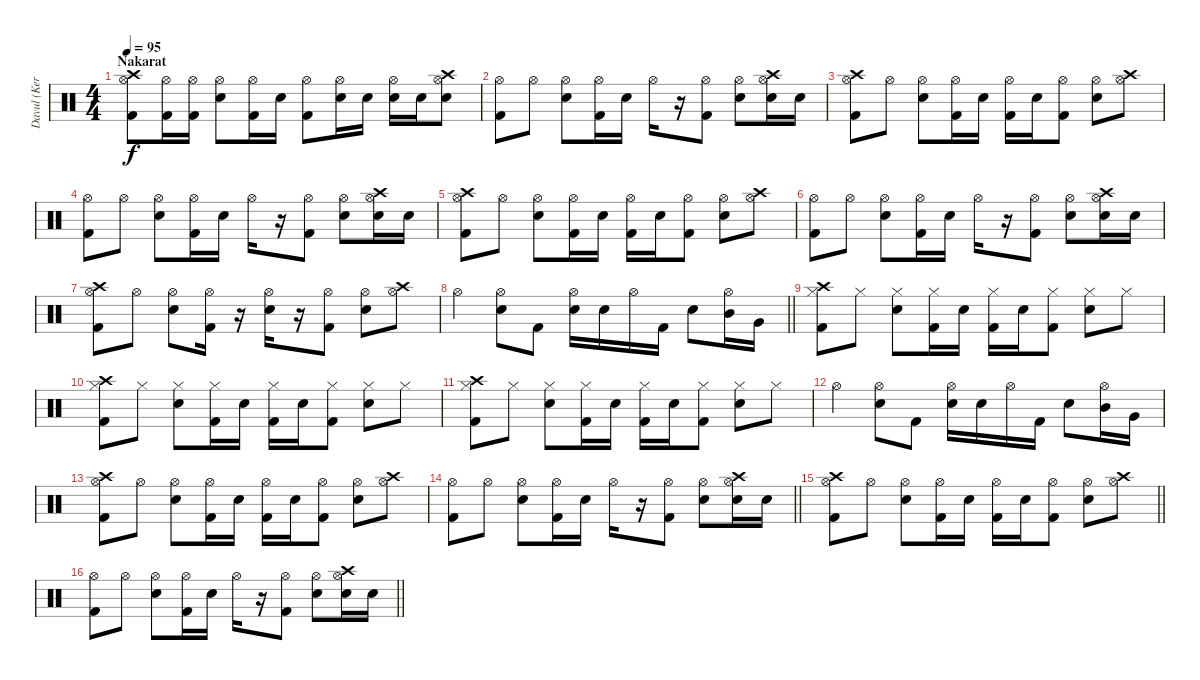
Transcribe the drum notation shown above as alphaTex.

\track ("Davul (Kerem Kabadayı)" "Davul (Ker") {instrument percussion}
\staff {score}
\articulation defaults
\ts (4 4)
\section ("" "Nakarat")
\tempo 95
\clef neutral
\ks c
("Crash high (hit)" "Kick (hit) 2" "Hi-Hat (open)").8{dy f} ("Kick (hit) 2" "Hi-Hat (open)").16 ("Kick (hit) 2" "Hi-Hat (open)").16 ("Snare (hit) 2" "Hi-Hat (open)").8 ("Kick (hit) 2" "Hi-Hat (open)").16 "Snare (hit) 2".16 ("Kick (hit) 2" "Hi-Hat (open)").8 ("Snare (hit) 2" "Hi-Hat (open)").16 "Snare (hit) 2".16 ("Snare (hit) 2" "Hi-Hat (open)").16 "Snare (hit) 2".16 ("Crash high (hit)" "Snare (hit) 2" "Hi-Hat (open)").8 |
("Kick (hit) 2" "Hi-Hat (open)").8 "Hi-Hat (open)".8 ("Snare (hit) 2" "Hi-Hat (open)").8 ("Kick (hit) 2" "Hi-Hat (open)").16 "Snare (hit) 2".16 "Hi-Hat (open)".16 r.16 ("Kick (hit) 2" "Hi-Hat (open)").8 ("Snare (hit) 2" "Hi-Hat (open)").8 ("Crash high (hit)" "Snare (hit) 2" "Hi-Hat (open)").16 "Snare (hit) 2".16 |
("Crash high (hit)" "Kick (hit) 2" "Hi-Hat (open)").8 "Hi-Hat (open)".8 ("Snare (hit) 2" "Hi-Hat (open)").8 ("Kick (hit) 2" "Hi-Hat (open)").16 "Snare (hit) 2".16 ("Kick (hit) 2" "Hi-Hat (open)").16 "Snare (hit) 2".16 ("Kick (hit) 2" "Hi-Hat (open)").8 ("Snare (hit) 2" "Hi-Hat (open)").8 ("Crash high (hit)" "Hi-Hat (open)").8 |
("Kick (hit) 2" "Hi-Hat (open)").8 "Hi-Hat (open)".8 ("Snare (hit) 2" "Hi-Hat (open)").8 ("Kick (hit) 2" "Hi-Hat (open)").16 "Snare (hit) 2".16 "Hi-Hat (open)".16 r.16 ("Kick (hit) 2" "Hi-Hat (open)").8 ("Snare (hit) 2" "Hi-Hat (open)").8 ("Crash high (hit)" "Snare (hit) 2" "Hi-Hat (open)").16 "Snare (hit) 2".16 |
("Crash high (hit)" "Kick (hit) 2" "Hi-Hat (open)").8 "Hi-Hat (open)".8 ("Snare (hit) 2" "Hi-Hat (open)").8 ("Kick (hit) 2" "Hi-Hat (open)").16 "Snare (hit) 2".16 ("Kick (hit) 2" "Hi-Hat (open)").16 "Snare (hit) 2".16 ("Kick (hit) 2" "Hi-Hat (open)").8 ("Snare (hit) 2" "Hi-Hat (open)").8 ("Crash high (hit)" "Hi-Hat (open)").8 |
("Kick (hit) 2" "Hi-Hat (open)").8 "Hi-Hat (open)".8 ("Snare (hit) 2" "Hi-Hat (open)").8 ("Kick (hit) 2" "Hi-Hat (open)").16 "Snare (hit) 2".16 "Hi-Hat (open)".16 r.16 ("Kick (hit) 2" "Hi-Hat (open)").8 ("Snare (hit) 2" "Hi-Hat (open)").8 ("Crash high (hit)" "Snare (hit) 2" "Hi-Hat (open)").16 "Snare (hit) 2".16 |
("Crash high (hit)" "Kick (hit) 2" "Hi-Hat (open)").8 "Hi-Hat (open)".8 ("Snare (hit) 2" "Hi-Hat (open)").8 ("Kick (hit) 2" "Hi-Hat (open)").16 r.16 ("Snare (hit) 2" "Hi-Hat (open)").16 r.16 ("Kick (hit) 2" "Hi-Hat (open)").8 ("Snare (hit) 2" "Hi-Hat (open)").8 ("Crash high (hit)" "Hi-Hat (open)").8 |
\barLineRight lightlight "Hi-Hat (open)".4
("Snare (hit) 2" "Hi-Hat (open)").8 "Kick (hit) 2".8 ("Snare (hit) 2" "Hi-Hat (open)").16 "Snare (hit) 2".16 "Hi-Hat (open)".16 "Kick (hit) 2".16 "Snare (hit) 2".8 ("Mid Tom (hit)" "Hi-Hat (open)").16 "Very Low Tom (hit)".16 |
("Crash high (hit)" "Kick (hit) 2" "Hi-Hat (closed)").8{volume 11} "Hi-Hat (closed)".8 ("Snare (hit) 2" "Hi-Hat (closed)").8 ("Kick (hit) 2" "Hi-Hat (closed)").16 "Snare (hit) 2".16 ("Kick (hit) 2" "Hi-Hat (closed)").16 "Snare (hit) 2".16 ("Kick (hit) 2" "Hi-Hat (closed)").8 ("Snare (hit) 2" "Hi-Hat (closed)").8 "Hi-Hat (closed)".8 |
("Crash high (hit)" "Kick (hit) 2" "Hi-Hat (closed)").8 "Hi-Hat (closed)".8 ("Snare (hit) 2" "Hi-Hat (closed)").8 ("Kick (hit) 2" "Hi-Hat (closed)").16 "Snare (hit) 2".16 ("Kick (hit) 2" "Hi-Hat (closed)").16 "Snare (hit) 2".16 ("Kick (hit) 2" "Hi-Hat (closed)").8 ("Snare (hit) 2" "Hi-Hat (closed)").8 "Hi-Hat (closed)".8 |
("Crash high (hit)" "Kick (hit) 2" "Hi-Hat (closed)").8 "Hi-Hat (closed)".8 ("Snare (hit) 2" "Hi-Hat (closed)").8 ("Kick (hit) 2" "Hi-Hat (closed)").16 "Snare (hit) 2".16 ("Kick (hit) 2" "Hi-Hat (closed)").16 "Snare (hit) 2".16 ("Kick (hit) 2" "Hi-Hat (closed)").8 ("Snare (hit) 2" "Hi-Hat (closed)").8 "Hi-Hat (closed)".8 |
"Hi-Hat (open)".4 ("Snare (hit) 2" "Hi-Hat (open)").8 "Kick (hit) 2".8 ("Snare (hit) 2" "Hi-Hat (open)").16 "Snare (hit) 2".16 "Hi-Hat (open)".16 "Kick (hit) 2".16 "Snare (hit) 2".8 ("Mid Tom (hit)" "Hi-Hat (open)").16 "Very Low Tom (hit)".16 |
("Crash high (hit)" "Kick (hit) 2" "Hi-Hat (open)").8 "Hi-Hat (open)".8 ("Snare (hit) 2" "Hi-Hat (open)").8 ("Kick (hit) 2" "Hi-Hat (open)").16 "Snare (hit) 2".16 ("Kick (hit) 2" "Hi-Hat (open)").16 "Snare (hit) 2".16 ("Kick (hit) 2" "Hi-Hat (open)").8 ("Snare (hit) 2" "Hi-Hat (open)").8 ("Crash high (hit)" "Hi-Hat (open)").8 |
\barLineRight lightlight
("Kick (hit) 2" "Hi-Hat (open)").8 "Hi-Hat (open)".8 ("Snare (hit) 2" "Hi-Hat (open)").8 ("Kick (hit) 2" "Hi-Hat (open)").16 "Snare (hit) 2".16 "Hi-Hat (open)".16 r.16 ("Kick (hit) 2" "Hi-Hat (open)").8 ("Snare (hit) 2" "Hi-Hat (open)").8 ("Crash high (hit)" "Snare (hit) 2" "Hi-Hat (open)").16 "Snare (hit) 2".16 |
\section ("" "")
\barLineRight lightlight
("Crash high (hit)" "Kick (hit) 2" "Hi-Hat (open)").8 "Hi-Hat (open)".8 ("Snare (hit) 2" "Hi-Hat (open)").8 ("Kick (hit) 2" "Hi-Hat (open)").16 "Snare (hit) 2".16 ("Kick (hit) 2" "Hi-Hat (open)").16 "Snare (hit) 2".16 ("Kick (hit) 2" "Hi-Hat (open)").8 ("Snare (hit) 2" "Hi-Hat (open)").8 ("Crash high (hit)" "Hi-Hat (open)").8 |
\barLineRight lightlight
("Kick (hit) 2" "Hi-Hat (open)").8 "Hi-Hat (open)".8 ("Snare (hit) 2" "Hi-Hat (open)").8 ("Kick (hit) 2" "Hi-Hat (open)").16 "Snare (hit) 2".16 "Hi-Hat (open)".16 r.16 ("Kick (hit) 2" "Hi-Hat (open)").8 ("Snare (hit) 2" "Hi-Hat (open)").8 ("Crash high (hit)" "Snare (hit) 2" "Hi-Hat (open)").16 "Snare (hit) 2".16
